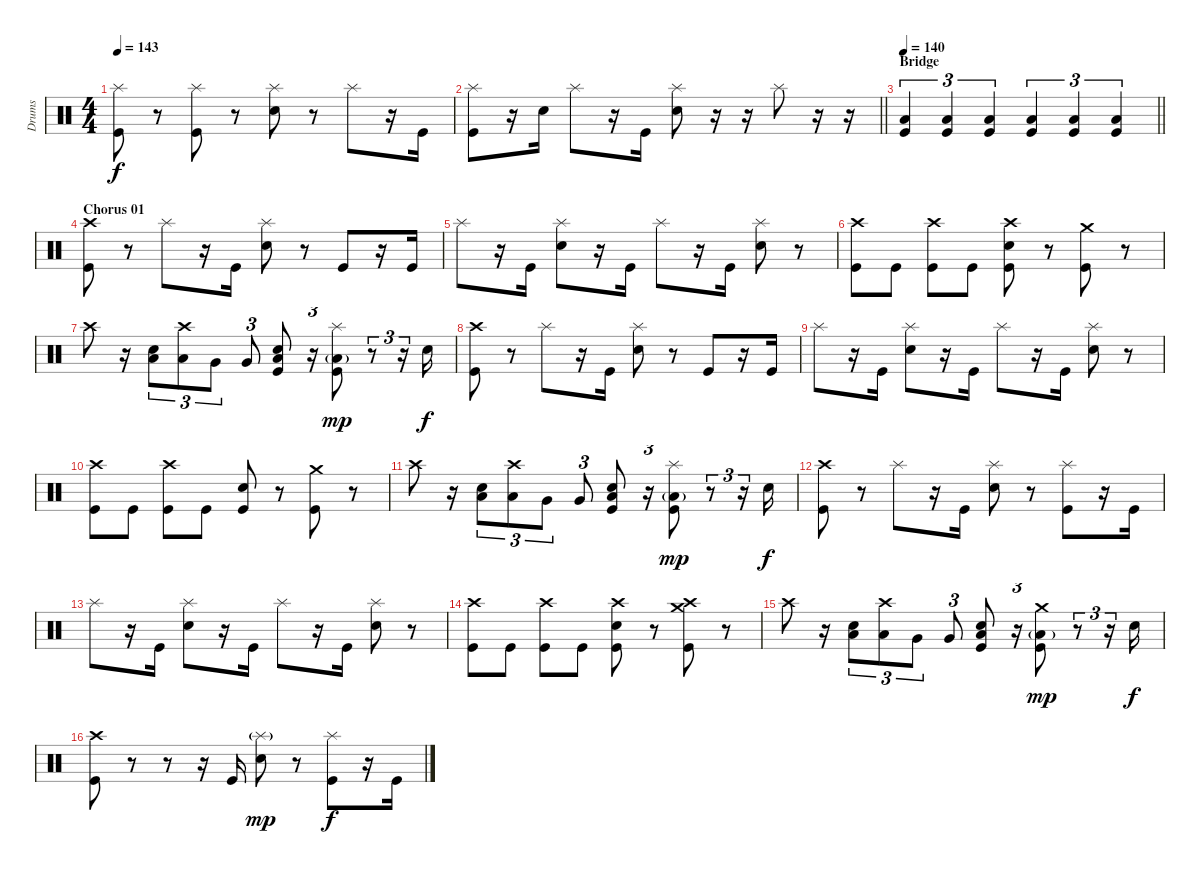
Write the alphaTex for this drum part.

\track ("Drums" "Drums") {instrument percussion}
\staff {score}
\articulation defaults
\ts (4 4)
\tempo 143
\clef neutral
\ks c
("Splash (hit)" "Kick (hit)").8{dy f} r.8 ("Splash (hit)" "Kick (hit)").8 r.8 ("Splash (hit)" "Electric Snare (hit)").8 r.8 "Splash (hit)".8 r.16 "Kick (hit)".16 |
\barLineRight lightlight
("Splash (hit)" "Kick (hit)").8 r.16 "Electric Snare (hit)".16 "Splash (hit)".8 r.16 "Kick (hit)".16 ("Splash (hit)" "Electric Snare (hit)").8 r.16 r.16 "Splash (hit)".8 r.16 r.16 |
\section ("" "Bridge")
\tempo 140
\barLineRight lightlight
("Low Tom (hit)" "Kick (hit)").4{tu (3 2)} ("Low Tom (hit)" "Kick (hit)").4{tu (3 2)} ("Low Tom (hit)" "Kick (hit)").4{tu (3 2)} ("Low Floor Tom (hit)" "Kick (hit)").4{tu (3 2)} ("Low Floor Tom (hit)" "Kick (hit)").4{tu (3 2)} ("Low Floor Tom (hit)" "Kick (hit)").4{tu (3 2)} |
\section ("" "Chorus 01")
("Crash high (hit)" "Kick (hit)").8 r.8 "Splash (hit)".8 r.16 "Kick (hit)".16 ("Splash (hit)" "Electric Snare (hit)").8 r.8 "Kick (hit)".8 r.16 "Kick (hit)".16 |
"Splash (hit)".8 r.16 "Kick (hit)".16 ("Splash (hit)" "Electric Snare (hit)").8 r.16 "Kick (hit)".16 "Splash (hit)".8 r.16 "Kick (hit)".16 ("Splash (hit)" "Electric Snare (hit)").8 r.8 |
("Crash high (hit)" "Kick (hit)").8 "Kick (hit)".8 ("Crash high (hit)" "Kick (hit)").8 "Kick (hit)".8 ("Crash high (hit)" "Electric Snare (hit)" "Kick (hit)").8 r.8 ("Crash medium (hit)" "Kick (hit)").8 r.8 |
"Crash high (hit)".8 r.16 ("Low Tom (hit)" "Electric Snare (hit)").8{tu (3 2)} ("Crash high (hit)" "Low Tom (hit)").8{tu (3 2)} "Very Low Tom (hit)".8{tu (3 2)} "Very Low Tom (hit)".8{tu (3 2)} ("Low Tom (hit)" "Snare (hit) 2" "Kick (hit)").8 r.16{tu (3 2)} ("Splash (hit)" "Low Floor Tom (hit)"{g} "Kick (hit)").8{dy mp} r.8{tu (3 2)} r.16{tu (3 2)} "Electric Snare (hit)".16{dy f} |
("Crash high (hit)" "Kick (hit)").8 r.8 "Splash (hit)".8 r.16 "Kick (hit)".16 ("Splash (hit)" "Electric Snare (hit)").8 r.8 "Kick (hit)".8 r.16 "Kick (hit)".16 |
"Splash (hit)".8 r.16 "Kick (hit)".16 ("Splash (hit)" "Electric Snare (hit)").8 r.16 "Kick (hit)".16 "Splash (hit)".8 r.16 "Kick (hit)".16 ("Splash (hit)" "Electric Snare (hit)").8 r.8 |
("Crash high (hit)" "Kick (hit)").8 "Kick (hit)".8 ("Crash high (hit)" "Kick (hit)").8 "Kick (hit)".8 ("Electric Snare (hit)" "Kick (hit)").8 r.8 ("Crash medium (hit)" "Kick (hit)").8 r.8 |
"Crash high (hit)".8 r.16 ("Low Tom (hit)" "Electric Snare (hit)").8{tu (3 2)} ("Crash high (hit)" "Low Tom (hit)").8{tu (3 2)} "Very Low Tom (hit)".8{tu (3 2)} "Very Low Tom (hit)".8{tu (3 2)} ("Low Tom (hit)" "Snare (hit) 2" "Kick (hit)").8 r.16{tu (3 2)} ("Splash (hit)" "Low Floor Tom (hit)"{g} "Kick (hit)").8{dy mp} r.8{tu (3 2)} r.16{tu (3 2)} "Electric Snare (hit)".16{dy f} |
("Crash high (hit)" "Kick (hit)").8 r.8 "Splash (hit)".8 r.16 "Kick (hit)".16 ("Splash (hit)" "Electric Snare (hit)").8 r.8 ("Splash (hit)" "Kick (hit)").8 r.16 "Kick (hit)".16 |
"Splash (hit)".8 r.16 "Kick (hit)".16 ("Splash (hit)" "Electric Snare (hit)").8 r.16 "Kick (hit)".16 "Splash (hit)".8 r.16 "Kick (hit)".16 ("Splash (hit)" "Electric Snare (hit)").8 r.8 |
("Crash high (hit)" "Kick (hit)").8 "Kick (hit)".8 ("Crash high (hit)" "Kick (hit)").8 "Kick (hit)".8 ("Crash high (hit)" "Electric Snare (hit)" "Kick (hit)").8 r.8 ("Crash high (hit)" "Crash medium (hit)" "Kick (hit)").8 r.8 |
"Crash high (hit)".8 r.16 ("Low Tom (hit)" "Electric Snare (hit)").8{tu (3 2)} ("Crash high (hit)" "Low Tom (hit)").8{tu (3 2)} "Very Low Tom (hit)".8{tu (3 2)} "Very Low Tom (hit)".8{tu (3 2)} ("Low Tom (hit)" "Snare (hit) 2" "Kick (hit)").8 r.16{tu (3 2)} ("Crash medium (hit)" "Low Floor Tom (hit)"{g} "Kick (hit)").8{dy mp} r.8{tu (3 2)} r.16{tu (3 2)} "Electric Snare (hit)".16{dy f} |
("Crash high (hit)" "Kick (hit)").8 r.8 r.8 r.16 "Kick (hit)".16 ("Splash (hit)"{g} "Electric Snare (hit)").8{dy mp} r.8 ("Splash (hit)" "Kick (hit)").8{dy f} r.16 "Kick (hit)".16
